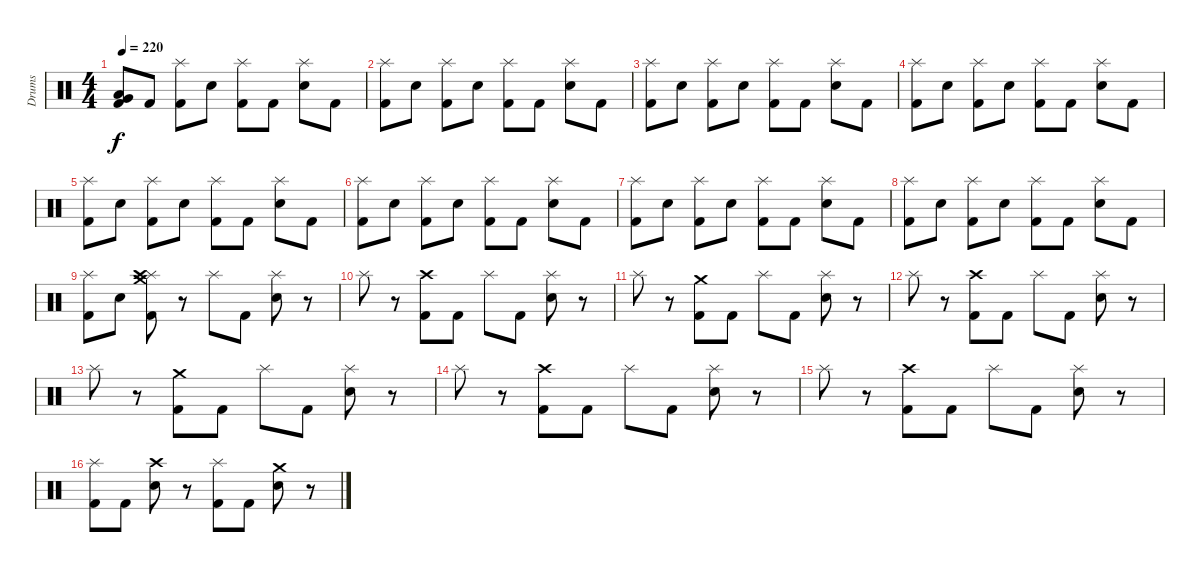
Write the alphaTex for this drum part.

\track ("Drums" "Drums") {instrument percussion}
\staff {score}
\articulation defaults
\ts (4 4)
\tempo 220
\clef neutral
\ks c
("Very Low Tom (hit)" "Low Floor Tom (hit)" "Kick (hit) 2").8{dy f} "Kick (hit) 2".8 ("Splash (hit)" "Kick (hit) 2").8 "Electric Snare (hit)".8 ("Splash (hit)" "Kick (hit) 2").8 "Kick (hit) 2".8 ("Splash (hit)" "Electric Snare (hit)").8 "Kick (hit) 2".8 |
("Splash (hit)" "Kick (hit) 2").8 "Electric Snare (hit)".8 ("Splash (hit)" "Kick (hit) 2").8 "Electric Snare (hit)".8 ("Splash (hit)" "Kick (hit) 2").8 "Kick (hit) 2".8 ("Splash (hit)" "Electric Snare (hit)").8 "Kick (hit) 2".8 |
("Splash (hit)" "Kick (hit) 2").8 "Electric Snare (hit)".8 ("Splash (hit)" "Kick (hit) 2").8 "Electric Snare (hit)".8 ("Splash (hit)" "Kick (hit) 2").8 "Kick (hit) 2".8 ("Splash (hit)" "Electric Snare (hit)").8 "Kick (hit) 2".8 |
("Splash (hit)" "Kick (hit) 2").8 "Electric Snare (hit)".8 ("Splash (hit)" "Kick (hit) 2").8 "Electric Snare (hit)".8 ("Splash (hit)" "Kick (hit) 2").8 "Kick (hit) 2".8 ("Splash (hit)" "Electric Snare (hit)").8 "Kick (hit) 2".8 |
("Splash (hit)" "Kick (hit) 2").8 "Electric Snare (hit)".8 ("Splash (hit)" "Kick (hit) 2").8 "Electric Snare (hit)".8 ("Splash (hit)" "Kick (hit) 2").8 "Kick (hit) 2".8 ("Splash (hit)" "Electric Snare (hit)").8 "Kick (hit) 2".8 |
("Splash (hit)" "Kick (hit) 2").8 "Electric Snare (hit)".8 ("Splash (hit)" "Kick (hit) 2").8 "Electric Snare (hit)".8 ("Splash (hit)" "Kick (hit) 2").8 "Kick (hit) 2".8 ("Splash (hit)" "Electric Snare (hit)").8 "Kick (hit) 2".8 |
("Splash (hit)" "Kick (hit) 2").8 "Electric Snare (hit)".8 ("Splash (hit)" "Kick (hit) 2").8 "Electric Snare (hit)".8 ("Splash (hit)" "Kick (hit) 2").8 "Kick (hit) 2".8 ("Splash (hit)" "Electric Snare (hit)").8 "Kick (hit) 2".8 |
("Splash (hit)" "Kick (hit) 2").8 "Electric Snare (hit)".8 ("Splash (hit)" "Kick (hit) 2").8 "Electric Snare (hit)".8 ("Splash (hit)" "Kick (hit) 2").8 "Kick (hit) 2".8 ("Splash (hit)" "Electric Snare (hit)").8 "Kick (hit) 2".8 |
("Splash (hit)" "Kick (hit) 2").8 "Electric Snare (hit)".8 ("Splash (hit)" "Crash high (hit)" "Crash medium (hit)" "Kick (hit) 2").8 r.8 "Splash (hit)".8 "Kick (hit) 2".8 ("Splash (hit)" "Electric Snare (hit)").8 r.8 |
"Splash (hit)".8 r.8 ("Crash high (hit)" "Kick (hit) 2").8 "Kick (hit) 2".8 "Splash (hit)".8 "Kick (hit) 2".8 ("Splash (hit)" "Electric Snare (hit)").8 r.8 |
"Splash (hit)".8 r.8 ("Crash medium (hit)" "Kick (hit) 2").8 "Kick (hit) 2".8 "Splash (hit)".8 "Kick (hit) 2".8 ("Splash (hit)" "Electric Snare (hit)").8 r.8 |
"Splash (hit)".8 r.8 ("Crash high (hit)" "Kick (hit) 2").8 "Kick (hit) 2".8 "Splash (hit)".8 "Kick (hit) 2".8 ("Splash (hit)" "Electric Snare (hit)").8 r.8 |
"Splash (hit)".8 r.8 ("Crash medium (hit)" "Kick (hit) 2").8 "Kick (hit) 2".8 "Splash (hit)".8 "Kick (hit) 2".8 ("Splash (hit)" "Electric Snare (hit)").8 r.8 |
"Splash (hit)".8 r.8 ("Crash high (hit)" "Kick (hit) 2").8 "Kick (hit) 2".8 "Splash (hit)".8 "Kick (hit) 2".8 ("Splash (hit)" "Electric Snare (hit)").8 r.8 |
"Splash (hit)".8 r.8 ("Crash high (hit)" "Kick (hit) 2").8 "Kick (hit) 2".8 "Splash (hit)".8 "Kick (hit) 2".8 ("Splash (hit)" "Electric Snare (hit)").8 r.8 |
("Splash (hit)" "Kick (hit) 2").8 "Kick (hit) 2".8 ("Crash high (hit)" "Electric Snare (hit)").8 r.8 ("Splash (hit)" "Kick (hit) 2").8 "Kick (hit) 2".8 ("Crash medium (hit)" "Electric Snare (hit)").8 r.8
